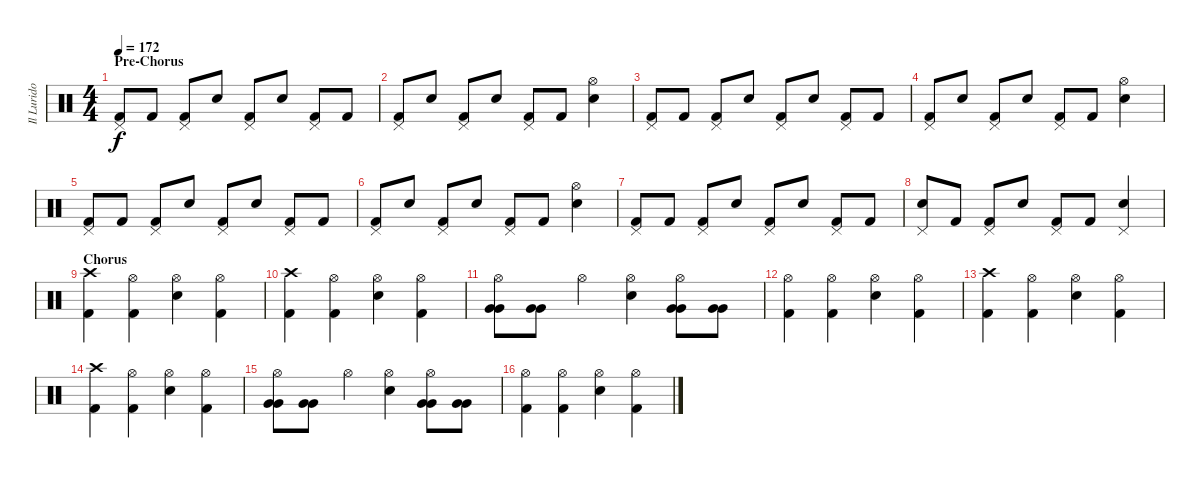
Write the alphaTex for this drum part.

\track ("Il Lurido Cavernicolo (Drums)" "Il Lurido ") {instrument percussion}
\staff {score}
\articulation defaults
\ts (4 4)
\section ("" "Pre-Chorus")
\tempo 172
\clef neutral
\ks c
("Pedal Hi-Hat (hit)" "Kick (hit) 2").8{dy f} "Kick (hit) 2".8 ("Pedal Hi-Hat (hit)" "Kick (hit) 2").8 "Electric Snare (hit)".8 ("Pedal Hi-Hat (hit)" "Kick (hit) 2").8 "Electric Snare (hit)".8 ("Pedal Hi-Hat (hit)" "Kick (hit) 2").8 "Kick (hit) 2".8 |
("Pedal Hi-Hat (hit)" "Kick (hit) 2").8 "Electric Snare (hit)".8 ("Pedal Hi-Hat (hit)" "Kick (hit) 2").8 "Electric Snare (hit)".8 ("Pedal Hi-Hat (hit)" "Kick (hit) 2").8 "Kick (hit) 2".8 ("Hi-Hat (open)" "Electric Snare (hit)").4 |
("Pedal Hi-Hat (hit)" "Kick (hit) 2").8 "Kick (hit) 2".8 ("Pedal Hi-Hat (hit)" "Kick (hit) 2").8 "Electric Snare (hit)".8 ("Pedal Hi-Hat (hit)" "Kick (hit) 2").8 "Electric Snare (hit)".8 ("Pedal Hi-Hat (hit)" "Kick (hit) 2").8 "Kick (hit) 2".8 |
("Pedal Hi-Hat (hit)" "Kick (hit) 2").8 "Electric Snare (hit)".8 ("Pedal Hi-Hat (hit)" "Kick (hit) 2").8 "Electric Snare (hit)".8 ("Pedal Hi-Hat (hit)" "Kick (hit) 2").8 "Kick (hit) 2".8 ("Hi-Hat (open)" "Electric Snare (hit)").4 |
("Pedal Hi-Hat (hit)" "Kick (hit) 2").8 "Kick (hit) 2".8 ("Pedal Hi-Hat (hit)" "Kick (hit) 2").8 "Electric Snare (hit)".8 ("Pedal Hi-Hat (hit)" "Kick (hit) 2").8 "Electric Snare (hit)".8 ("Pedal Hi-Hat (hit)" "Kick (hit) 2").8 "Kick (hit) 2".8 |
("Pedal Hi-Hat (hit)" "Kick (hit) 2").8 "Electric Snare (hit)".8 ("Pedal Hi-Hat (hit)" "Kick (hit) 2").8 "Electric Snare (hit)".8 ("Pedal Hi-Hat (hit)" "Kick (hit) 2").8 "Kick (hit) 2".8 ("Hi-Hat (open)" "Electric Snare (hit)").4 |
("Pedal Hi-Hat (hit)" "Kick (hit) 2").8 "Kick (hit) 2".8 ("Pedal Hi-Hat (hit)" "Kick (hit) 2").8 "Electric Snare (hit)".8 ("Pedal Hi-Hat (hit)" "Kick (hit) 2").8 "Electric Snare (hit)".8 ("Pedal Hi-Hat (hit)" "Kick (hit) 2").8 "Kick (hit) 2".8 |
("Pedal Hi-Hat (hit)" "Electric Snare (hit)").8 "Kick (hit) 2".8 ("Pedal Hi-Hat (hit)" "Kick (hit) 2").8 "Electric Snare (hit)".8 ("Pedal Hi-Hat (hit)" "Kick (hit) 2").8 "Kick (hit) 2".8 ("Pedal Hi-Hat (hit)" "Electric Snare (hit)").4 |
\section ("" "Chorus")
("Crash high (hit)" "Kick (hit) 2").4 ("Hi-Hat (open)" "Kick (hit) 2").4 ("Hi-Hat (open)" "Electric Snare (hit)").4 ("Hi-Hat (open)" "Kick (hit) 2").4 |
("Crash high (hit)" "Kick (hit) 2").4 ("Hi-Hat (open)" "Kick (hit) 2").4 ("Hi-Hat (open)" "Electric Snare (hit)").4 ("Hi-Hat (open)" "Kick (hit) 2").4 |
("Hi-Hat (open)" "Very Low Tom (hit)" "Very Low Tom (hit)").8 ("Very Low Tom (hit)" "Very Low Tom (hit)").8 "Hi-Hat (open)".4 ("Hi-Hat (open)" "Electric Snare (hit)").4 ("Hi-Hat (open)" "Very Low Tom (hit)" "Very Low Tom (hit)").8 ("Very Low Tom (hit)" "Very Low Tom (hit)").8 |
("Hi-Hat (open)" "Kick (hit) 2").4 ("Hi-Hat (open)" "Kick (hit) 2").4 ("Hi-Hat (open)" "Electric Snare (hit)").4 ("Hi-Hat (open)" "Kick (hit) 2").4 |
("Crash high (hit)" "Kick (hit) 2").4 ("Hi-Hat (open)" "Kick (hit) 2").4 ("Hi-Hat (open)" "Electric Snare (hit)").4 ("Hi-Hat (open)" "Kick (hit) 2").4 |
("Crash high (hit)" "Kick (hit) 2").4 ("Hi-Hat (open)" "Kick (hit) 2").4 ("Hi-Hat (open)" "Electric Snare (hit)").4 ("Hi-Hat (open)" "Kick (hit) 2").4 |
("Hi-Hat (open)" "Very Low Tom (hit)" "Very Low Tom (hit)").8 ("Very Low Tom (hit)" "Very Low Tom (hit)").8 "Hi-Hat (open)".4 ("Hi-Hat (open)" "Electric Snare (hit)").4 ("Hi-Hat (open)" "Very Low Tom (hit)" "Very Low Tom (hit)").8 ("Very Low Tom (hit)" "Very Low Tom (hit)").8 |
("Hi-Hat (open)" "Kick (hit) 2").4 ("Hi-Hat (open)" "Kick (hit) 2").4 ("Hi-Hat (open)" "Electric Snare (hit)").4 ("Hi-Hat (open)" "Kick (hit) 2").4
